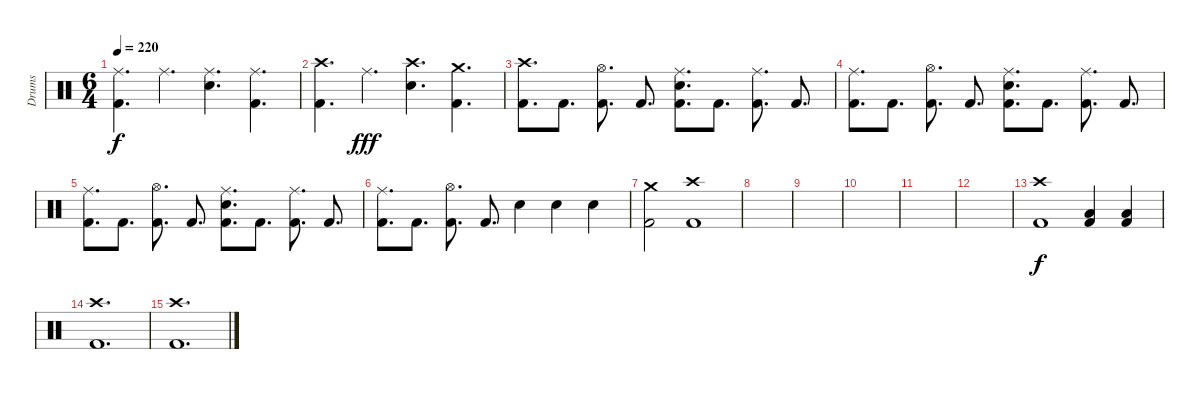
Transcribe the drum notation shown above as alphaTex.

\track ("Drums" "Drums") {instrument percussion}
\staff {score}
\articulation defaults
\ts (6 4)
\tempo 220
\clef neutral
\ks c
("Ride (middle)" "Kick (hit) 2").4{d dy f} "Ride (middle)".4{d} ("Ride (middle)" "Electric Snare (hit)").4{d} ("Ride (middle)" "Kick (hit) 2").4{d} |
("Crash high (hit)" "Kick (hit) 2").4{d} "Ride (middle)".4{d dy fff} ("Crash high (hit)" "Electric Snare (hit)").4{d} ("Crash medium (hit)" "Kick (hit) 2").4{d} |
("Crash high (hit)" "Kick (hit) 2").8{d} "Kick (hit) 2".8{d} ("Hi-Hat (open)" "Kick (hit) 2").8{d} "Kick (hit) 2".8{d} ("Ride (middle)" "Electric Snare (hit)" "Kick (hit) 2").8{d} "Kick (hit) 2".8{d} ("Ride (middle)" "Kick (hit) 2").8{d} "Kick (hit) 2".8{d} |
("Ride (middle)" "Kick (hit) 2").8{d} "Kick (hit) 2".8{d} ("Hi-Hat (open)" "Kick (hit) 2").8{d} "Kick (hit) 2".8{d} ("Ride (middle)" "Electric Snare (hit)" "Kick (hit) 2").8{d} "Kick (hit) 2".8{d} ("Ride (middle)" "Kick (hit) 2").8{d} "Kick (hit) 2".8{d} |
("Ride (middle)" "Kick (hit) 2").8{d} "Kick (hit) 2".8{d} ("Hi-Hat (open)" "Kick (hit) 2").8{d} "Kick (hit) 2".8{d} ("Ride (middle)" "Electric Snare (hit)" "Kick (hit) 2").8{d} "Kick (hit) 2".8{d} ("Ride (middle)" "Kick (hit) 2").8{d} "Kick (hit) 2".8{d} |
("Ride (middle)" "Kick (hit) 2").8{d} "Kick (hit) 2".8{d} ("Hi-Hat (open)" "Kick (hit) 2").8{d} "Kick (hit) 2".8{d} "Electric Snare (hit)".4 "Electric Snare (hit)".4 "Electric Snare (hit)".4 |
("Crash medium (hit)" "Kick (hit) 2").2 ("Crash high (hit)" "Kick (hit) 2").1 |
|
|
|
|
|
("Crash high (hit)" "Kick (hit) 2").1{dy f} ("Low Floor Tom (hit)" "Kick (hit) 2").4 ("Low Floor Tom (hit)" "Kick (hit) 2").4 |
("Crash high (hit)" "Kick (hit) 2").1{d} |
("Crash high (hit)" "Kick (hit) 2").1{d}
